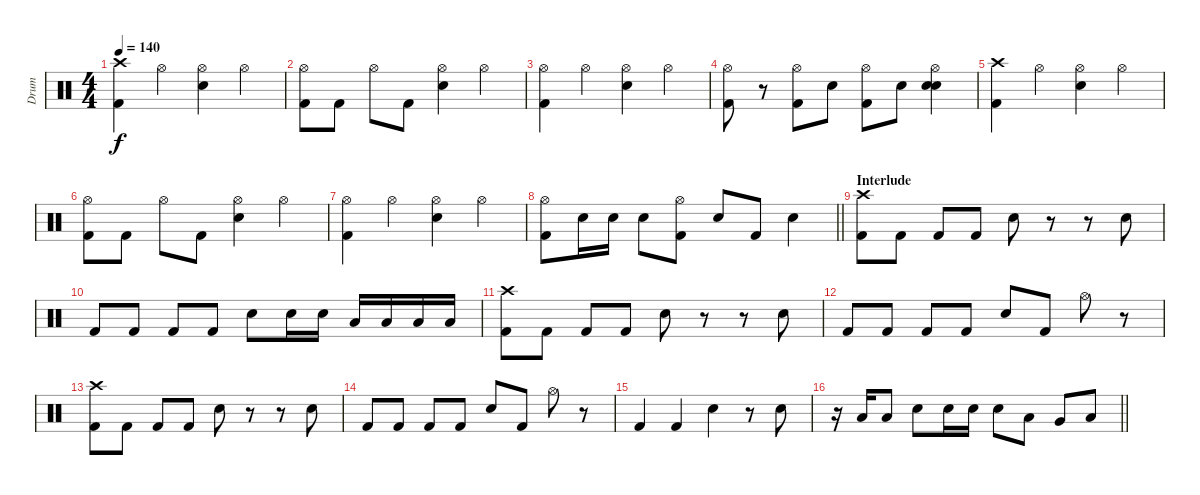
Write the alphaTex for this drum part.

\track ("Drum" "Drum") {instrument percussion}
\staff {score}
\articulation defaults
\ts (4 4)
\tempo 140
\clef neutral
\ks c
("Crash high (hit)" "Kick (hit) 2").4{dy f} "Hi-Hat (open)".4 ("Hi-Hat (open)" "Electric Snare (hit)").4 "Hi-Hat (open)".4 |
("Hi-Hat (open)" "Kick (hit) 2").8 "Kick (hit) 2".8 "Hi-Hat (open)".8 "Kick (hit) 2".8 ("Hi-Hat (open)" "Electric Snare (hit)").4 "Hi-Hat (open)".4 |
("Hi-Hat (open)" "Kick (hit) 2").4 "Hi-Hat (open)".4 ("Hi-Hat (open)" "Electric Snare (hit)").4 "Hi-Hat (open)".4 |
("Hi-Hat (open)" "Kick (hit) 2").8 r.8 ("Hi-Hat (open)" "Kick (hit) 2").8 "Electric Snare (hit)".8 ("Hi-Hat (open)" "Kick (hit) 2").8 "Electric Snare (hit)".8 ("Hi-Hat (open)" "Electric Snare (hit)" "Electric Snare (hit)").4 |
("Crash high (hit)" "Kick (hit) 2").4 "Hi-Hat (open)".4 ("Hi-Hat (open)" "Electric Snare (hit)").4 "Hi-Hat (open)".4 |
("Hi-Hat (open)" "Kick (hit) 2").8 "Kick (hit) 2".8 "Hi-Hat (open)".8 "Kick (hit) 2".8 ("Hi-Hat (open)" "Electric Snare (hit)").4 "Hi-Hat (open)".4 |
("Hi-Hat (open)" "Kick (hit) 2").4 "Hi-Hat (open)".4 ("Hi-Hat (open)" "Electric Snare (hit)").4 "Hi-Hat (open)".4 |
\barLineRight lightlight
("Hi-Hat (open)" "Kick (hit) 2").8 "Electric Snare (hit)".16 "Electric Snare (hit)".16 "Electric Snare (hit)".8 ("Hi-Hat (open)" "Kick (hit) 2").8 "Electric Snare (hit)".8 "Kick (hit) 2".8 "Electric Snare (hit)".4 |
\section ("" "Interlude")
("Crash high (hit)" "Kick (hit) 2").8 "Kick (hit) 2".8 "Kick (hit) 2".8 "Kick (hit) 2".8 "Electric Snare (hit)".8 r.8 r.8 "Electric Snare (hit)".8 |
"Kick (hit) 2".8 "Kick (hit) 2".8 "Kick (hit) 2".8 "Kick (hit) 2".8 "Electric Snare (hit)".8 "Electric Snare (hit)".16 "Electric Snare (hit)".16 "Low Tom (hit)".16 "Low Tom (hit)".16 "Low Tom (hit)".16 "Low Tom (hit)".16 |
("Crash high (hit)" "Kick (hit) 2").8 "Kick (hit) 2".8 "Kick (hit) 2".8 "Kick (hit) 2".8 "Electric Snare (hit)".8 r.8 r.8 "Electric Snare (hit)".8 |
"Kick (hit) 2".8 "Kick (hit) 2".8 "Kick (hit) 2".8 "Kick (hit) 2".8 "Electric Snare (hit)".8 "Kick (hit) 2".8 "Hi-Hat (open)".8 r.8 |
("Crash high (hit)" "Kick (hit) 2").8 "Kick (hit) 2".8 "Kick (hit) 2".8 "Kick (hit) 2".8 "Electric Snare (hit)".8 r.8 r.8 "Electric Snare (hit)".8 |
"Kick (hit) 2".8 "Kick (hit) 2".8 "Kick (hit) 2".8 "Kick (hit) 2".8 "Electric Snare (hit)".8 "Kick (hit) 2".8 "Hi-Hat (open)".8 r.8 |
"Kick (hit) 2".4 "Kick (hit) 2".4 "Electric Snare (hit)".4 r.8 "Electric Snare (hit)".8 |
\barLineRight lightlight
r.16 "Low Tom (hit)".16 "Low Tom (hit)".8 "Electric Snare (hit)".8 "Electric Snare (hit)".16 "Electric Snare (hit)".16 "Electric Snare (hit)".8 "Low Tom (hit)".8 "Very Low Tom (hit)".8 "Low Floor Tom (hit)".8
